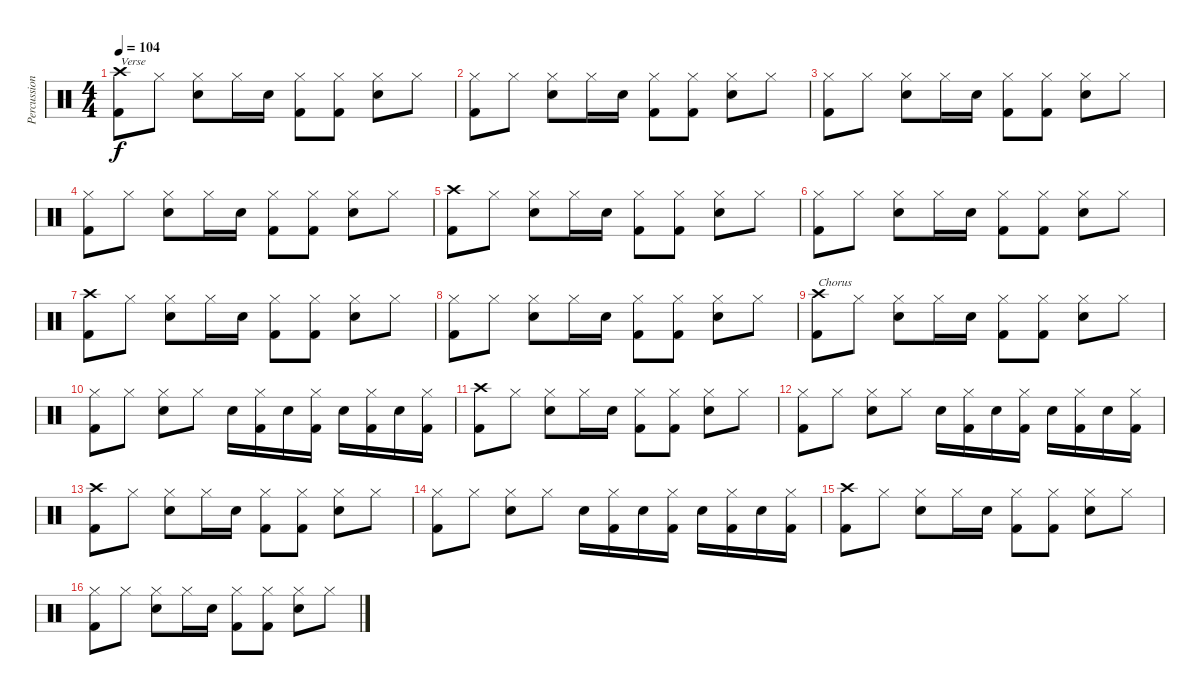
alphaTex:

\track ("Percussion" "Percussion") {instrument percussion}
\staff {score}
\articulation defaults
\ts (4 4)
\tempo 104
\clef neutral
\ks c
("Crash high (hit)" "Kick (hit) 2").8{txt "Verse" dy f} "Hi-Hat (closed)".8 ("Hi-Hat (closed)" "Snare (hit) 2").8 "Hi-Hat (closed)".16 "Snare (hit) 2".16 ("Hi-Hat (closed)" "Kick (hit) 2").8 ("Hi-Hat (closed)" "Kick (hit) 2").8 ("Hi-Hat (closed)" "Snare (hit) 2").8 "Hi-Hat (closed)".8 |
("Hi-Hat (closed)" "Kick (hit) 2").8 "Hi-Hat (closed)".8 ("Hi-Hat (closed)" "Snare (hit) 2").8 "Hi-Hat (closed)".16 "Snare (hit) 2".16 ("Hi-Hat (closed)" "Kick (hit) 2").8 ("Hi-Hat (closed)" "Kick (hit) 2").8 ("Hi-Hat (closed)" "Snare (hit) 2").8 "Hi-Hat (closed)".8 |
("Hi-Hat (closed)" "Kick (hit) 2").8 "Hi-Hat (closed)".8 ("Hi-Hat (closed)" "Snare (hit) 2").8 "Hi-Hat (closed)".16 "Snare (hit) 2".16 ("Hi-Hat (closed)" "Kick (hit) 2").8 ("Hi-Hat (closed)" "Kick (hit) 2").8 ("Hi-Hat (closed)" "Snare (hit) 2").8 "Hi-Hat (closed)".8 |
("Hi-Hat (closed)" "Kick (hit) 2").8 "Hi-Hat (closed)".8 ("Hi-Hat (closed)" "Snare (hit) 2").8 "Hi-Hat (closed)".16 "Snare (hit) 2".16 ("Hi-Hat (closed)" "Kick (hit) 2").8 ("Hi-Hat (closed)" "Kick (hit) 2").8 ("Hi-Hat (closed)" "Snare (hit) 2").8 "Hi-Hat (closed)".8 |
("Crash high (hit)" "Kick (hit) 2").8 "Hi-Hat (closed)".8 ("Hi-Hat (closed)" "Snare (hit) 2").8 "Hi-Hat (closed)".16 "Snare (hit) 2".16 ("Hi-Hat (closed)" "Kick (hit) 2").8 ("Hi-Hat (closed)" "Kick (hit) 2").8 ("Hi-Hat (closed)" "Snare (hit) 2").8 "Hi-Hat (closed)".8 |
("Hi-Hat (closed)" "Kick (hit) 2").8 "Hi-Hat (closed)".8 ("Hi-Hat (closed)" "Snare (hit) 2").8 "Hi-Hat (closed)".16 "Snare (hit) 2".16 ("Hi-Hat (closed)" "Kick (hit) 2").8 ("Hi-Hat (closed)" "Kick (hit) 2").8 ("Hi-Hat (closed)" "Snare (hit) 2").8 "Hi-Hat (closed)".8 |
("Crash high (hit)" "Kick (hit) 2").8 "Hi-Hat (closed)".8 ("Hi-Hat (closed)" "Snare (hit) 2").8 "Hi-Hat (closed)".16 "Snare (hit) 2".16 ("Hi-Hat (closed)" "Kick (hit) 2").8 ("Hi-Hat (closed)" "Kick (hit) 2").8 ("Hi-Hat (closed)" "Snare (hit) 2").8 "Hi-Hat (closed)".8 |
("Hi-Hat (closed)" "Kick (hit) 2").8 "Hi-Hat (closed)".8 ("Hi-Hat (closed)" "Snare (hit) 2").8 "Hi-Hat (closed)".16 "Snare (hit) 2".16 ("Hi-Hat (closed)" "Kick (hit) 2").8 ("Hi-Hat (closed)" "Kick (hit) 2").8 ("Hi-Hat (closed)" "Snare (hit) 2").8 "Hi-Hat (closed)".8 |
("Crash high (hit)" "Kick (hit) 2").8{txt "Chorus"} "Hi-Hat (closed)".8 ("Hi-Hat (closed)" "Snare (hit) 2").8 "Hi-Hat (closed)".16 "Snare (hit) 2".16 ("Hi-Hat (closed)" "Kick (hit) 2").8 ("Hi-Hat (closed)" "Kick (hit) 2").8 ("Hi-Hat (closed)" "Snare (hit) 2").8 "Hi-Hat (closed)".8 |
("Hi-Hat (closed)" "Kick (hit) 2").8 "Hi-Hat (closed)".8 ("Hi-Hat (closed)" "Snare (hit) 2").8 "Hi-Hat (closed)".8 "Snare (hit) 2".16 ("Hi-Hat (closed)" "Kick (hit) 2").16 "Snare (hit) 2".16 ("Hi-Hat (closed)" "Kick (hit) 2").16 "Snare (hit) 2".16 ("Hi-Hat (closed)" "Kick (hit) 2").16 "Snare (hit) 2".16 ("Hi-Hat (closed)" "Kick (hit) 2").16 |
("Crash high (hit)" "Kick (hit) 2").8 "Hi-Hat (closed)".8 ("Hi-Hat (closed)" "Snare (hit) 2").8 "Hi-Hat (closed)".16 "Snare (hit) 2".16 ("Hi-Hat (closed)" "Kick (hit) 2").8 ("Hi-Hat (closed)" "Kick (hit) 2").8 ("Hi-Hat (closed)" "Snare (hit) 2").8 "Hi-Hat (closed)".8 |
("Hi-Hat (closed)" "Kick (hit) 2").8 "Hi-Hat (closed)".8 ("Hi-Hat (closed)" "Snare (hit) 2").8 "Hi-Hat (closed)".8 "Snare (hit) 2".16 ("Hi-Hat (closed)" "Kick (hit) 2").16 "Snare (hit) 2".16 ("Hi-Hat (closed)" "Kick (hit) 2").16 "Snare (hit) 2".16 ("Hi-Hat (closed)" "Kick (hit) 2").16 "Snare (hit) 2".16 ("Hi-Hat (closed)" "Kick (hit) 2").16 |
("Crash high (hit)" "Kick (hit) 2").8 "Hi-Hat (closed)".8 ("Hi-Hat (closed)" "Snare (hit) 2").8 "Hi-Hat (closed)".16 "Snare (hit) 2".16 ("Hi-Hat (closed)" "Kick (hit) 2").8 ("Hi-Hat (closed)" "Kick (hit) 2").8 ("Hi-Hat (closed)" "Snare (hit) 2").8 "Hi-Hat (closed)".8 |
("Hi-Hat (closed)" "Kick (hit) 2").8 "Hi-Hat (closed)".8 ("Hi-Hat (closed)" "Snare (hit) 2").8 "Hi-Hat (closed)".8 "Snare (hit) 2".16 ("Hi-Hat (closed)" "Kick (hit) 2").16 "Snare (hit) 2".16 ("Hi-Hat (closed)" "Kick (hit) 2").16 "Snare (hit) 2".16 ("Hi-Hat (closed)" "Kick (hit) 2").16 "Snare (hit) 2".16 ("Hi-Hat (closed)" "Kick (hit) 2").16 |
("Crash high (hit)" "Kick (hit) 2").8 "Hi-Hat (closed)".8 ("Hi-Hat (closed)" "Snare (hit) 2").8 "Hi-Hat (closed)".16 "Snare (hit) 2".16 ("Hi-Hat (closed)" "Kick (hit) 2").8 ("Hi-Hat (closed)" "Kick (hit) 2").8 ("Hi-Hat (closed)" "Snare (hit) 2").8 "Hi-Hat (closed)".8 |
("Hi-Hat (closed)" "Kick (hit) 2").8 "Hi-Hat (closed)".8 ("Hi-Hat (closed)" "Snare (hit) 2").8 "Hi-Hat (closed)".16 "Snare (hit) 2".16 ("Hi-Hat (closed)" "Kick (hit) 2").8 ("Hi-Hat (closed)" "Kick (hit) 2").8 ("Hi-Hat (closed)" "Snare (hit) 2").8 "Hi-Hat (closed)".8
